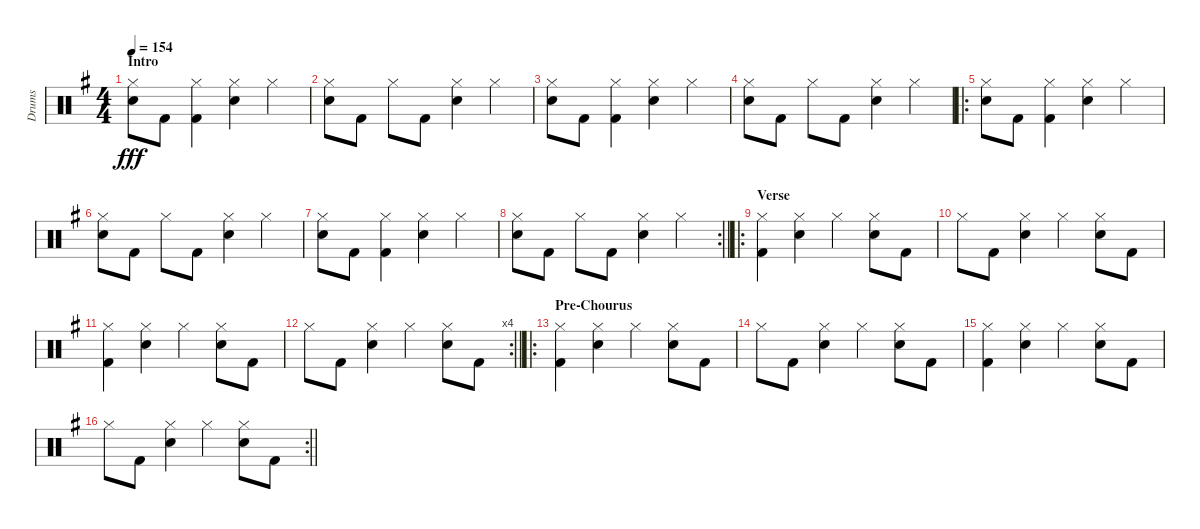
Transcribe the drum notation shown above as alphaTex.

\track ("Drums" "Drums") {instrument percussion}
\staff {score}
\articulation defaults
\ts (4 4)
\section ("" "Intro")
\tempo 154
\clef neutral
\ks g
("Hi-Hat (closed)" "Snare (hit) 2").8{dy fff} "Kick (hit) 2".8 ("Hi-Hat (closed)" "Kick (hit) 2").4 ("Hi-Hat (closed)" "Snare (hit) 2").4 "Hi-Hat (closed)".4 |
("Hi-Hat (closed)" "Snare (hit) 2").8 "Kick (hit) 2".8 "Hi-Hat (closed)".8 "Kick (hit) 2".8 ("Hi-Hat (closed)" "Snare (hit) 2").4 "Hi-Hat (closed)".4 |
("Hi-Hat (closed)" "Snare (hit) 2").8 "Kick (hit) 2".8 ("Hi-Hat (closed)" "Kick (hit) 2").4 ("Hi-Hat (closed)" "Snare (hit) 2").4 "Hi-Hat (closed)".4 |
("Hi-Hat (closed)" "Snare (hit) 2").8 "Kick (hit) 2".8 "Hi-Hat (closed)".8 "Kick (hit) 2".8 ("Hi-Hat (closed)" "Snare (hit) 2").4 "Hi-Hat (closed)".4 |
\ro
("Hi-Hat (closed)" "Snare (hit) 2").8 "Kick (hit) 2".8 ("Hi-Hat (closed)" "Kick (hit) 2").4 ("Hi-Hat (closed)" "Snare (hit) 2").4 "Hi-Hat (closed)".4 |
("Hi-Hat (closed)" "Snare (hit) 2").8 "Kick (hit) 2".8 "Hi-Hat (closed)".8 "Kick (hit) 2".8 ("Hi-Hat (closed)" "Snare (hit) 2").4 "Hi-Hat (closed)".4 |
("Hi-Hat (closed)" "Snare (hit) 2").8 "Kick (hit) 2".8 ("Hi-Hat (closed)" "Kick (hit) 2").4 ("Hi-Hat (closed)" "Snare (hit) 2").4 "Hi-Hat (closed)".4 |
\rc 2
\barLineRight lightlight
("Hi-Hat (closed)" "Snare (hit) 2").8 "Kick (hit) 2".8 "Hi-Hat (closed)".8 "Kick (hit) 2".8 ("Hi-Hat (closed)" "Snare (hit) 2").4 "Hi-Hat (closed)".4 |
\ro
\section ("" "Verse")
("Hi-Hat (closed)" "Kick (hit) 2").4 ("Hi-Hat (closed)" "Snare (hit) 2").4 "Hi-Hat (closed)".4 ("Hi-Hat (closed)" "Snare (hit) 2").8 "Kick (hit) 2".8 |
"Hi-Hat (closed)".8 "Kick (hit) 2".8 ("Hi-Hat (closed)" "Snare (hit) 2").4 "Hi-Hat (closed)".4 ("Hi-Hat (closed)" "Snare (hit) 2").8 "Kick (hit) 2".8 |
("Hi-Hat (closed)" "Kick (hit) 2").4 ("Hi-Hat (closed)" "Snare (hit) 2").4 "Hi-Hat (closed)".4 ("Hi-Hat (closed)" "Snare (hit) 2").8 "Kick (hit) 2".8 |
\rc 4
\barLineRight lightlight "Hi-Hat (closed)".8 "Kick (hit) 2".8
("Hi-Hat (closed)" "Snare (hit) 2").4 "Hi-Hat (closed)".4 ("Hi-Hat (closed)" "Snare (hit) 2").8 "Kick (hit) 2".8 |
\ro
\section ("" "Pre-Chourus")
("Hi-Hat (closed)" "Kick (hit) 2").4 ("Hi-Hat (closed)" "Snare (hit) 2").4 "Hi-Hat (closed)".4 ("Hi-Hat (closed)" "Snare (hit) 2").8 "Kick (hit) 2".8 |
"Hi-Hat (closed)".8 "Kick (hit) 2".8 ("Hi-Hat (closed)" "Snare (hit) 2").4 "Hi-Hat (closed)".4 ("Hi-Hat (closed)" "Snare (hit) 2").8 "Kick (hit) 2".8 |
("Hi-Hat (closed)" "Kick (hit) 2").4 ("Hi-Hat (closed)" "Snare (hit) 2").4 "Hi-Hat (closed)".4 ("Hi-Hat (closed)" "Snare (hit) 2").8 "Kick (hit) 2".8 |
\rc 2
\barLineRight lightlight "Hi-Hat (closed)".8 "Kick (hit) 2".8
("Hi-Hat (closed)" "Snare (hit) 2").4 "Hi-Hat (closed)".4 ("Hi-Hat (closed)" "Snare (hit) 2").8 "Kick (hit) 2".8
